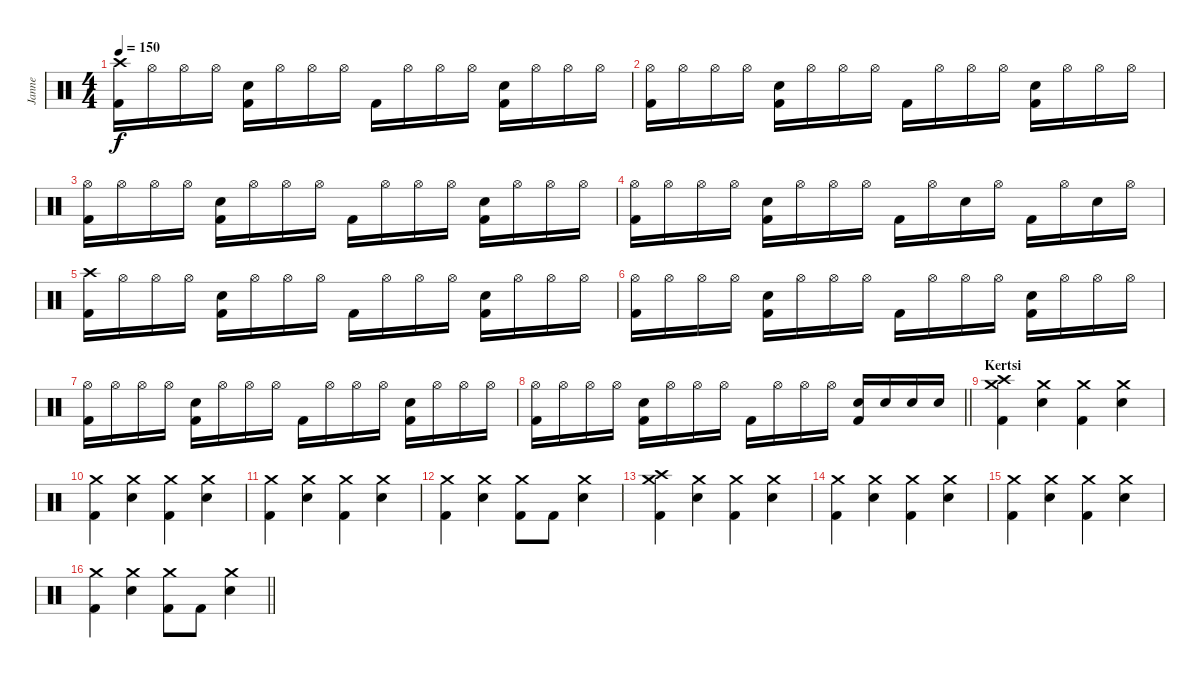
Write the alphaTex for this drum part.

\track ("Janne" "Janne") {instrument percussion}
\staff {score}
\articulation defaults
\ts (4 4)
\tempo 150
\clef neutral
\ks c
("Crash high (hit)" "Kick (hit) 2").16{dy f} "Hi-Hat (open)".16 "Hi-Hat (open)".16 "Hi-Hat (open)".16 ("Electric Snare (hit)" "Kick (hit) 2").16 "Hi-Hat (open)".16 "Hi-Hat (open)".16 "Hi-Hat (open)".16 "Kick (hit) 2".16 "Hi-Hat (open)".16 "Hi-Hat (open)".16 "Hi-Hat (open)".16 ("Electric Snare (hit)" "Kick (hit) 2").16 "Hi-Hat (open)".16 "Hi-Hat (open)".16 "Hi-Hat (open)".16 |
("Hi-Hat (open)" "Kick (hit) 2").16 "Hi-Hat (open)".16 "Hi-Hat (open)".16 "Hi-Hat (open)".16 ("Electric Snare (hit)" "Kick (hit) 2").16 "Hi-Hat (open)".16 "Hi-Hat (open)".16 "Hi-Hat (open)".16 "Kick (hit) 2".16 "Hi-Hat (open)".16 "Hi-Hat (open)".16 "Hi-Hat (open)".16 ("Electric Snare (hit)" "Kick (hit) 2").16 "Hi-Hat (open)".16 "Hi-Hat (open)".16 "Hi-Hat (open)".16 |
("Hi-Hat (open)" "Kick (hit) 2").16 "Hi-Hat (open)".16 "Hi-Hat (open)".16 "Hi-Hat (open)".16 ("Electric Snare (hit)" "Kick (hit) 2").16 "Hi-Hat (open)".16 "Hi-Hat (open)".16 "Hi-Hat (open)".16 "Kick (hit) 2".16 "Hi-Hat (open)".16 "Hi-Hat (open)".16 "Hi-Hat (open)".16 ("Electric Snare (hit)" "Kick (hit) 2").16 "Hi-Hat (open)".16 "Hi-Hat (open)".16 "Hi-Hat (open)".16 |
("Hi-Hat (open)" "Kick (hit) 2").16 "Hi-Hat (open)".16 "Hi-Hat (open)".16 "Hi-Hat (open)".16 ("Electric Snare (hit)" "Kick (hit) 2").16 "Hi-Hat (open)".16 "Hi-Hat (open)".16 "Hi-Hat (open)".16 "Kick (hit) 2".16 "Hi-Hat (open)".16 "Electric Snare (hit)".16 "Hi-Hat (open)".16 "Kick (hit) 2".16 "Hi-Hat (open)".16 "Electric Snare (hit)".16 "Hi-Hat (open)".16 |
("Crash high (hit)" "Kick (hit) 2").16 "Hi-Hat (open)".16 "Hi-Hat (open)".16 "Hi-Hat (open)".16 ("Electric Snare (hit)" "Kick (hit) 2").16 "Hi-Hat (open)".16 "Hi-Hat (open)".16 "Hi-Hat (open)".16 "Kick (hit) 2".16 "Hi-Hat (open)".16 "Hi-Hat (open)".16 "Hi-Hat (open)".16 ("Electric Snare (hit)" "Kick (hit) 2").16 "Hi-Hat (open)".16 "Hi-Hat (open)".16 "Hi-Hat (open)".16 |
("Hi-Hat (open)" "Kick (hit) 2").16 "Hi-Hat (open)".16 "Hi-Hat (open)".16 "Hi-Hat (open)".16 ("Electric Snare (hit)" "Kick (hit) 2").16 "Hi-Hat (open)".16 "Hi-Hat (open)".16 "Hi-Hat (open)".16 "Kick (hit) 2".16 "Hi-Hat (open)".16 "Hi-Hat (open)".16 "Hi-Hat (open)".16 ("Electric Snare (hit)" "Kick (hit) 2").16 "Hi-Hat (open)".16 "Hi-Hat (open)".16 "Hi-Hat (open)".16 |
("Hi-Hat (open)" "Kick (hit) 2").16 "Hi-Hat (open)".16 "Hi-Hat (open)".16 "Hi-Hat (open)".16 ("Electric Snare (hit)" "Kick (hit) 2").16 "Hi-Hat (open)".16 "Hi-Hat (open)".16 "Hi-Hat (open)".16 "Kick (hit) 2".16 "Hi-Hat (open)".16 "Hi-Hat (open)".16 "Hi-Hat (open)".16 ("Electric Snare (hit)" "Kick (hit) 2").16 "Hi-Hat (open)".16 "Hi-Hat (open)".16 "Hi-Hat (open)".16 |
\barLineRight lightlight
("Hi-Hat (open)" "Kick (hit) 2").16 "Hi-Hat (open)".16 "Hi-Hat (open)".16 "Hi-Hat (open)".16 ("Electric Snare (hit)" "Kick (hit) 2").16 "Hi-Hat (open)".16 "Hi-Hat (open)".16 "Hi-Hat (open)".16 "Kick (hit) 2".16 "Hi-Hat (open)".16 "Hi-Hat (open)".16 "Hi-Hat (open)".16 ("Electric Snare (hit)" "Kick (hit) 2").16 "Electric Snare (hit)".16 "Electric Snare (hit)".16 "Electric Snare (hit)".16 |
\section ("" "Kertsi")
("Crash high (hit)" "Crash medium (hit)" "Kick (hit) 2").4 ("Crash medium (hit)" "Electric Snare (hit)").4 ("Crash medium (hit)" "Kick (hit) 2").4 ("Crash medium (hit)" "Electric Snare (hit)").4 |
("Crash medium (hit)" "Kick (hit) 2").4 ("Crash medium (hit)" "Electric Snare (hit)").4 ("Crash medium (hit)" "Kick (hit) 2").4 ("Crash medium (hit)" "Electric Snare (hit)").4 |
("Crash medium (hit)" "Kick (hit) 2").4 ("Crash medium (hit)" "Electric Snare (hit)").4 ("Crash medium (hit)" "Kick (hit) 2").4 ("Crash medium (hit)" "Electric Snare (hit)").4 |
("Crash medium (hit)" "Kick (hit) 2").4 ("Crash medium (hit)" "Electric Snare (hit)").4 ("Crash medium (hit)" "Kick (hit) 2").8 "Kick (hit) 2".8 ("Crash medium (hit)" "Electric Snare (hit)").4 |
("Crash high (hit)" "Crash medium (hit)" "Kick (hit) 2").4 ("Crash medium (hit)" "Electric Snare (hit)").4 ("Crash medium (hit)" "Kick (hit) 2").4 ("Crash medium (hit)" "Electric Snare (hit)").4 |
("Crash medium (hit)" "Kick (hit) 2").4 ("Crash medium (hit)" "Electric Snare (hit)").4 ("Crash medium (hit)" "Kick (hit) 2").4 ("Crash medium (hit)" "Electric Snare (hit)").4 |
("Crash medium (hit)" "Kick (hit) 2").4 ("Crash medium (hit)" "Electric Snare (hit)").4 ("Crash medium (hit)" "Kick (hit) 2").4 ("Crash medium (hit)" "Electric Snare (hit)").4 |
\barLineRight lightlight
("Crash medium (hit)" "Kick (hit) 2").4 ("Crash medium (hit)" "Electric Snare (hit)").4 ("Crash medium (hit)" "Kick (hit) 2").8 "Kick (hit) 2".8 ("Crash medium (hit)" "Electric Snare (hit)").4
